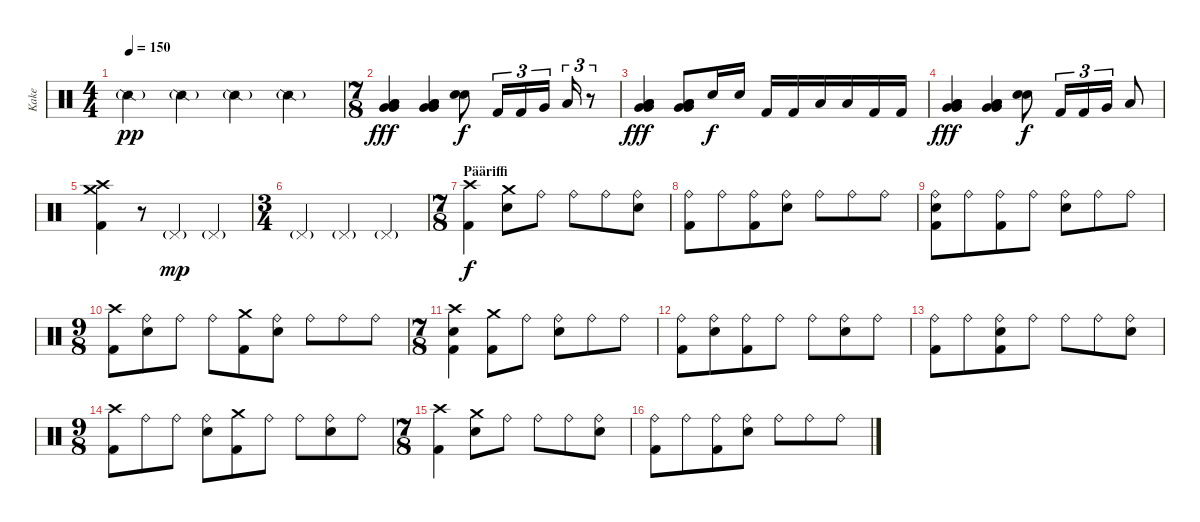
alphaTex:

\track ("Kake" "Kake") {instrument percussion}
\staff {score}
\articulation defaults
\ts (4 4)
\tempo 150
\clef neutral
\ks c "Snare (side stick) 2"{g}.4{dy pp} "Snare (side stick) 2"{g}.4 "Snare (side stick) 2"{g}.4 "Snare (side stick) 2"{g}.4
|
\ts (7 8)
("Very Low Tom (hit)" "Very Low Tom (hit)" "Low Floor Tom (hit)" "Low Floor Tom (hit)").4{dy fff} ("Very Low Tom (hit)" "Very Low Tom (hit)" "Low Floor Tom (hit)" "Low Floor Tom (hit)").4 ("Electric Snare (hit)" "Electric Snare (hit)").8{dy f} "Kick (hit) 2".16{tu (3 2)} "Kick (hit) 2".16{tu (3 2)} "Very Low Tom (hit)".16{tu (3 2)} "Low Tom (hit)".16{tu (3 2)} r.8{tu (3 2)} |
("Very Low Tom (hit)" "Very Low Tom (hit)" "Low Floor Tom (hit)" "Low Floor Tom (hit)").4{dy fff} ("Very Low Tom (hit)" "Very Low Tom (hit)" "Low Floor Tom (hit)" "Low Floor Tom (hit)").8 "Electric Snare (hit)".16{dy f} "Electric Snare (hit)".16 "Kick (hit) 2".16 "Kick (hit) 2".16 "Low Tom (hit)".16 "Low Tom (hit)".16 "Kick (hit) 2".16 "Kick (hit) 2".16 |
("Very Low Tom (hit)" "Very Low Tom (hit)" "Low Floor Tom (hit)" "Low Floor Tom (hit)").4{dy fff} ("Very Low Tom (hit)" "Very Low Tom (hit)" "Low Floor Tom (hit)" "Low Floor Tom (hit)").4 ("Electric Snare (hit)" "Electric Snare (hit)").8{dy f} "Kick (hit) 2".16{tu (3 2)} "Kick (hit) 2".16{tu (3 2)} "Very Low Tom (hit)".16{tu (3 2)} "Low Tom (hit)".8 |
("Crash medium (hit)" "Crash high (hit)" "Kick (hit) 2").4 r.8 "Pedal Hi-Hat (hit)"{g}.4{dy mp} "Pedal Hi-Hat (hit)"{g}.4 |
\ts (3 4)
"Pedal Hi-Hat (hit)"{g}.4 "Pedal Hi-Hat (hit)"{g}.4 "Pedal Hi-Hat (hit)"{g}.4 |
\ts (7 8)
\section ("" "Pääriffi")
("Crash high (hit)" "Kick (hit) 2").4{dy f} ("Crash medium (hit)" "Electric Snare (hit)").8 "Ride (bell)".8 "Ride (bell)".8 "Ride (bell)".8 ("Ride (bell)" "Electric Snare (hit)").8 |
("Ride (bell)" "Kick (hit) 2").8 "Ride (bell)".8 ("Ride (bell)" "Kick (hit) 2").8 ("Ride (bell)" "Electric Snare (hit)").8 "Ride (bell)".8 "Ride (bell)".8 "Ride (bell)".8 |
("Ride (bell)" "Electric Snare (hit)" "Kick (hit) 2").8 "Ride (bell)".8 ("Ride (bell)" "Kick (hit) 2").8 "Ride (bell)".8 ("Ride (bell)" "Electric Snare (hit)").8 "Ride (bell)".8 "Ride (bell)".8 |
\ts (9 8)
("Crash high (hit)" "Kick (hit) 2").8 ("Ride (bell)" "Electric Snare (hit)").8 "Ride (bell)".8 "Ride (bell)".8 ("Crash medium (hit)" "Kick (hit) 2").8 ("Ride (bell)" "Electric Snare (hit)").8 "Ride (bell)".8 "Ride (bell)".8 "Ride (bell)".8 |
\ts (7 8)
("Crash high (hit)" "Electric Snare (hit)" "Kick (hit) 2").4 ("Crash medium (hit)" "Kick (hit) 2").8 "Ride (bell)".8 ("Ride (bell)" "Electric Snare (hit)").8 "Ride (bell)".8 "Ride (bell)".8 |
("Ride (bell)" "Kick (hit) 2").8 ("Ride (bell)" "Electric Snare (hit)").8 ("Ride (bell)" "Kick (hit) 2").8 "Ride (bell)".8 "Ride (bell)".8 ("Ride (bell)" "Electric Snare (hit)").8 "Ride (bell)".8 |
("Ride (bell)" "Kick (hit) 2").8 "Ride (bell)".8 ("Ride (bell)" "Electric Snare (hit)" "Kick (hit) 2").8 "Ride (bell)".8 "Ride (bell)".8 "Ride (bell)".8 ("Ride (bell)" "Electric Snare (hit)").8 |
\ts (9 8)
("Crash high (hit)" "Kick (hit) 2").8 "Ride (bell)".8 "Ride (bell)".8 ("Ride (bell)" "Electric Snare (hit)").8 ("Crash medium (hit)" "Kick (hit) 2").8 "Ride (bell)".8 "Ride (bell)".8 ("Ride (bell)" "Electric Snare (hit)").8 "Ride (bell)".8 |
\ts (7 8)
("Crash high (hit)" "Kick (hit) 2").4 ("Crash medium (hit)" "Electric Snare (hit)").8 "Ride (bell)".8 "Ride (bell)".8 "Ride (bell)".8 ("Ride (bell)" "Electric Snare (hit)").8 |
("Ride (bell)" "Kick (hit) 2").8 "Ride (bell)".8 ("Ride (bell)" "Kick (hit) 2").8 ("Ride (bell)" "Electric Snare (hit)").8 "Ride (bell)".8 "Ride (bell)".8 "Ride (bell)".8
